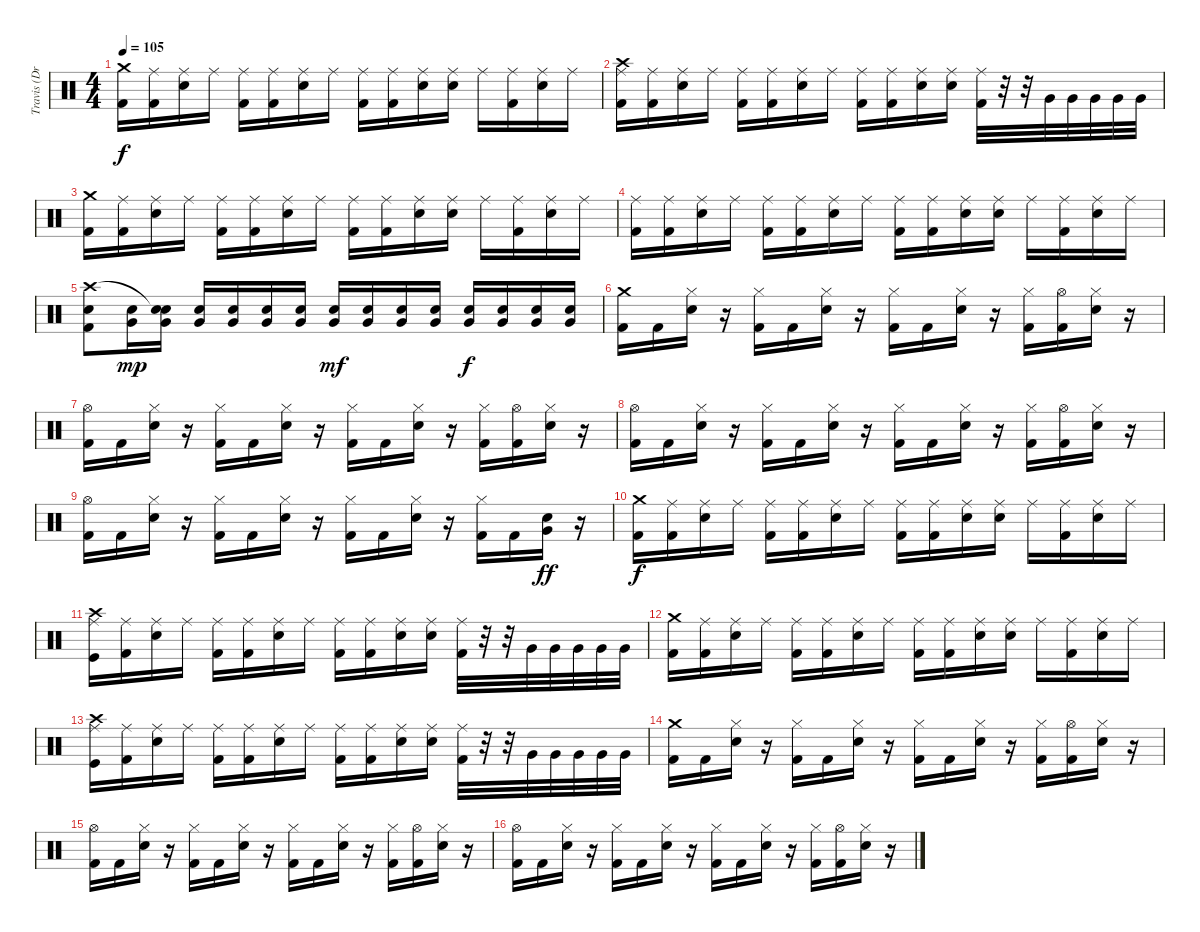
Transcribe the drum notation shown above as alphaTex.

\track ("Travis (Drums)" "Travis (Dr") {instrument percussion}
\staff {score}
\articulation defaults
\ts (4 4)
\tempo 105
\clef neutral
\ks c
("Kick (hit) 2" "Crash medium (hit)").16{dy f} ("Ride (middle)" "Kick (hit) 2").16 ("Ride (middle)" "Electric Snare (hit)").16 "Ride (middle)".16 ("Ride (middle)" "Kick (hit) 2").16 ("Ride (middle)" "Kick (hit) 2").16 ("Ride (middle)" "Electric Snare (hit)").16 "Ride (middle)".16 ("Ride (middle)" "Kick (hit) 2").16 ("Ride (middle)" "Kick (hit) 2").16 ("Ride (middle)" "Electric Snare (hit)").16 ("Ride (middle)" "Electric Snare (hit)").16 "Ride (middle)".16 ("Ride (middle)" "Kick (hit) 2").16 ("Ride (middle)" "Electric Snare (hit)").16 "Ride (middle)".16 |
("Ride (middle)" "Kick (hit) 2" "Crash high (hit)").16 ("Ride (middle)" "Kick (hit) 2").16 ("Ride (middle)" "Electric Snare (hit)").16 "Ride (middle)".16 ("Ride (middle)" "Kick (hit) 2").16 ("Ride (middle)" "Kick (hit) 2").16 ("Ride (middle)" "Electric Snare (hit)").16 "Ride (middle)".16 ("Ride (middle)" "Kick (hit) 2").16 ("Ride (middle)" "Kick (hit) 2").16 ("Ride (middle)" "Electric Snare (hit)").16 ("Ride (middle)" "Electric Snare (hit)").16 ("Ride (middle)" "Kick (hit) 2").32 r.32 r.32 "Very Low Tom (hit)".32 "Very Low Tom (hit)".32 "Very Low Tom (hit)".32 "Very Low Tom (hit)".32 "Very Low Tom (hit)".32 |
("Kick (hit) 2" "Crash medium (hit)").16 ("Ride (middle)" "Kick (hit) 2").16 ("Ride (middle)" "Electric Snare (hit)").16 "Ride (middle)".16 ("Ride (middle)" "Kick (hit) 2").16 ("Ride (middle)" "Kick (hit) 2").16 ("Ride (middle)" "Electric Snare (hit)").16 "Ride (middle)".16 ("Ride (middle)" "Kick (hit) 2").16 ("Ride (middle)" "Kick (hit) 2").16 ("Ride (middle)" "Electric Snare (hit)").16 ("Ride (middle)" "Electric Snare (hit)").16 "Ride (middle)".16 ("Ride (middle)" "Kick (hit) 2").16 ("Ride (middle)" "Electric Snare (hit)").16 "Ride (middle)".16 |
("Ride (middle)" "Kick (hit) 2").16 ("Ride (middle)" "Kick (hit) 2").16 ("Ride (middle)" "Electric Snare (hit)").16 "Ride (middle)".16 ("Ride (middle)" "Kick (hit) 2").16 ("Ride (middle)" "Kick (hit) 2").16 ("Ride (middle)" "Electric Snare (hit)").16 "Ride (middle)".16 ("Ride (middle)" "Kick (hit) 2").16 ("Ride (middle)" "Kick (hit) 2").16 ("Ride (middle)" "Electric Snare (hit)").16 ("Ride (middle)" "Electric Snare (hit)").16 "Ride (middle)".16 ("Ride (middle)" "Kick (hit) 2").16 ("Ride (middle)" "Electric Snare (hit)").16 "Ride (middle)".16 |
("Kick (hit) 2" "Electric Snare (hit)" "Crash high (hit)").8 ("Electric Snare (hit)" "Very Low Tom (hit)").16{dy mp} ("Electric Snare (hit)" "Very Low Tom (hit)" "Snare (hit)"{t}).16 ("Electric Snare (hit)" "Very Low Tom (hit)").16 ("Electric Snare (hit)" "Very Low Tom (hit)").16 ("Electric Snare (hit)" "Very Low Tom (hit)").16 ("Electric Snare (hit)" "Very Low Tom (hit)").16 ("Electric Snare (hit)" "Very Low Tom (hit)").16{dy mf} ("Electric Snare (hit)" "Very Low Tom (hit)").16 ("Electric Snare (hit)" "Very Low Tom (hit)").16 ("Electric Snare (hit)" "Very Low Tom (hit)").16 ("Electric Snare (hit)" "Very Low Tom (hit)").16{dy f} ("Electric Snare (hit)" "Very Low Tom (hit)").16 ("Electric Snare (hit)" "Very Low Tom (hit)").16 ("Electric Snare (hit)" "Very Low Tom (hit)").16 |
("Crash medium (hit)" "Kick (hit) 2").16 "Kick (hit) 2".16 ("Hi-Hat (closed)" "Electric Snare (hit)").16 r.16 ("Hi-Hat (closed)" "Kick (hit) 2").16 "Kick (hit) 2".16 ("Hi-Hat (closed)" "Electric Snare (hit)").16 r.16 ("Hi-Hat (closed)" "Kick (hit) 2").16 "Kick (hit) 2".16 ("Hi-Hat (closed)" "Electric Snare (hit)").16 r.16 ("Hi-Hat (closed)" "Kick (hit) 2").16 ("Hi-Hat (open)" "Kick (hit) 2").16 ("Hi-Hat (closed)" "Electric Snare (hit)").16 r.16 |
("Hi-Hat (open)" "Kick (hit) 2").16 "Kick (hit) 2".16 ("Hi-Hat (closed)" "Electric Snare (hit)").16 r.16 ("Hi-Hat (closed)" "Kick (hit) 2").16 "Kick (hit) 2".16 ("Hi-Hat (closed)" "Electric Snare (hit)").16 r.16 ("Hi-Hat (closed)" "Kick (hit) 2").16 "Kick (hit) 2".16 ("Hi-Hat (closed)" "Electric Snare (hit)").16 r.16 ("Hi-Hat (closed)" "Kick (hit) 2").16 ("Hi-Hat (open)" "Kick (hit) 2").16 ("Hi-Hat (closed)" "Electric Snare (hit)").16 r.16 |
("Hi-Hat (open)" "Kick (hit) 2").16 "Kick (hit) 2".16 ("Hi-Hat (closed)" "Electric Snare (hit)").16 r.16 ("Hi-Hat (closed)" "Kick (hit) 2").16 "Kick (hit) 2".16 ("Hi-Hat (closed)" "Electric Snare (hit)").16 r.16 ("Hi-Hat (closed)" "Kick (hit) 2").16 "Kick (hit) 2".16 ("Hi-Hat (closed)" "Electric Snare (hit)").16 r.16 ("Hi-Hat (closed)" "Kick (hit) 2").16 ("Hi-Hat (open)" "Kick (hit) 2").16 ("Hi-Hat (closed)" "Electric Snare (hit)").16 r.16 |
("Hi-Hat (open)" "Kick (hit) 2").16 "Kick (hit) 2".16 ("Hi-Hat (closed)" "Electric Snare (hit)").16 r.16 ("Hi-Hat (closed)" "Kick (hit) 2").16 "Kick (hit) 2".16 ("Hi-Hat (closed)" "Electric Snare (hit)").16 r.16 ("Hi-Hat (closed)" "Kick (hit) 2").16 "Kick (hit) 2".16 ("Hi-Hat (closed)" "Electric Snare (hit)").16 r.16 ("Hi-Hat (closed)" "Kick (hit) 2").16 "Kick (hit) 2".16 ("Electric Snare (hit)" "Very Low Tom (hit)").16{dy ff} r.16 |
("Kick (hit) 2" "Crash medium (hit)").16{dy f} ("Ride (middle)" "Kick (hit) 2").16 ("Ride (middle)" "Electric Snare (hit)").16 "Ride (middle)".16 ("Ride (middle)" "Kick (hit) 2").16 ("Ride (middle)" "Kick (hit) 2").16 ("Ride (middle)" "Electric Snare (hit)").16 "Ride (middle)".16 ("Ride (middle)" "Kick (hit) 2").16 ("Ride (middle)" "Kick (hit) 2").16 ("Ride (middle)" "Electric Snare (hit)").16 ("Ride (middle)" "Electric Snare (hit)").16 "Ride (middle)".16 ("Ride (middle)" "Kick (hit) 2").16 ("Ride (middle)" "Electric Snare (hit)").16 "Ride (middle)".16 |
("Ride (middle)" "Kick (hit)" "Crash high (hit)").16 ("Ride (middle)" "Kick (hit) 2").16 ("Ride (middle)" "Electric Snare (hit)").16 "Ride (middle)".16 ("Ride (middle)" "Kick (hit) 2").16 ("Ride (middle)" "Kick (hit) 2").16 ("Ride (middle)" "Electric Snare (hit)").16 "Ride (middle)".16 ("Ride (middle)" "Kick (hit) 2").16 ("Ride (middle)" "Kick (hit) 2").16 ("Ride (middle)" "Electric Snare (hit)").16 ("Ride (middle)" "Electric Snare (hit)").16 ("Ride (middle)" "Kick (hit) 2").32 r.32 r.32 "Very Low Tom (hit)".32 "Very Low Tom (hit)".32 "Very Low Tom (hit)".32 "Very Low Tom (hit)".32 "Very Low Tom (hit)".32 |
("Kick (hit) 2" "Crash medium (hit)").16 ("Ride (middle)" "Kick (hit) 2").16 ("Ride (middle)" "Electric Snare (hit)").16 "Ride (middle)".16 ("Ride (middle)" "Kick (hit) 2").16 ("Ride (middle)" "Kick (hit) 2").16 ("Ride (middle)" "Electric Snare (hit)").16 "Ride (middle)".16 ("Ride (middle)" "Kick (hit) 2").16 ("Ride (middle)" "Kick (hit) 2").16 ("Ride (middle)" "Electric Snare (hit)").16 ("Ride (middle)" "Electric Snare (hit)").16 "Ride (middle)".16 ("Ride (middle)" "Kick (hit) 2").16 ("Ride (middle)" "Electric Snare (hit)").16 "Ride (middle)".16 |
("Ride (middle)" "Kick (hit)" "Crash high (hit)").16 ("Ride (middle)" "Kick (hit) 2").16 ("Ride (middle)" "Electric Snare (hit)").16 "Ride (middle)".16 ("Ride (middle)" "Kick (hit) 2").16 ("Ride (middle)" "Kick (hit) 2").16 ("Ride (middle)" "Electric Snare (hit)").16 "Ride (middle)".16 ("Ride (middle)" "Kick (hit) 2").16 ("Ride (middle)" "Kick (hit) 2").16 ("Ride (middle)" "Electric Snare (hit)").16 ("Ride (middle)" "Electric Snare (hit)").16 ("Ride (middle)" "Kick (hit) 2").32 r.32 r.32 "Very Low Tom (hit)".32 "Very Low Tom (hit)".32 "Very Low Tom (hit)".32 "Very Low Tom (hit)".32 "Very Low Tom (hit)".32 |
("Crash medium (hit)" "Kick (hit) 2").16 "Kick (hit) 2".16 ("Hi-Hat (closed)" "Electric Snare (hit)").16 r.16 ("Hi-Hat (closed)" "Kick (hit) 2").16 "Kick (hit) 2".16 ("Hi-Hat (closed)" "Electric Snare (hit)").16 r.16 ("Hi-Hat (closed)" "Kick (hit) 2").16 "Kick (hit) 2".16 ("Hi-Hat (closed)" "Electric Snare (hit)").16 r.16 ("Hi-Hat (closed)" "Kick (hit) 2").16 ("Hi-Hat (open)" "Kick (hit) 2").16 ("Hi-Hat (closed)" "Electric Snare (hit)").16 r.16 |
("Hi-Hat (open)" "Kick (hit) 2").16 "Kick (hit) 2".16 ("Hi-Hat (closed)" "Electric Snare (hit)").16 r.16 ("Hi-Hat (closed)" "Kick (hit) 2").16 "Kick (hit) 2".16 ("Hi-Hat (closed)" "Electric Snare (hit)").16 r.16 ("Hi-Hat (closed)" "Kick (hit) 2").16 "Kick (hit) 2".16 ("Hi-Hat (closed)" "Electric Snare (hit)").16 r.16 ("Hi-Hat (closed)" "Kick (hit) 2").16 ("Hi-Hat (open)" "Kick (hit) 2").16 ("Hi-Hat (closed)" "Electric Snare (hit)").16 r.16 |
("Hi-Hat (open)" "Kick (hit) 2").16 "Kick (hit) 2".16 ("Hi-Hat (closed)" "Electric Snare (hit)").16 r.16 ("Hi-Hat (closed)" "Kick (hit) 2").16 "Kick (hit) 2".16 ("Hi-Hat (closed)" "Electric Snare (hit)").16 r.16 ("Hi-Hat (closed)" "Kick (hit) 2").16 "Kick (hit) 2".16 ("Hi-Hat (closed)" "Electric Snare (hit)").16 r.16 ("Hi-Hat (closed)" "Kick (hit) 2").16 ("Hi-Hat (open)" "Kick (hit) 2").16 ("Hi-Hat (closed)" "Electric Snare (hit)").16 r.16
